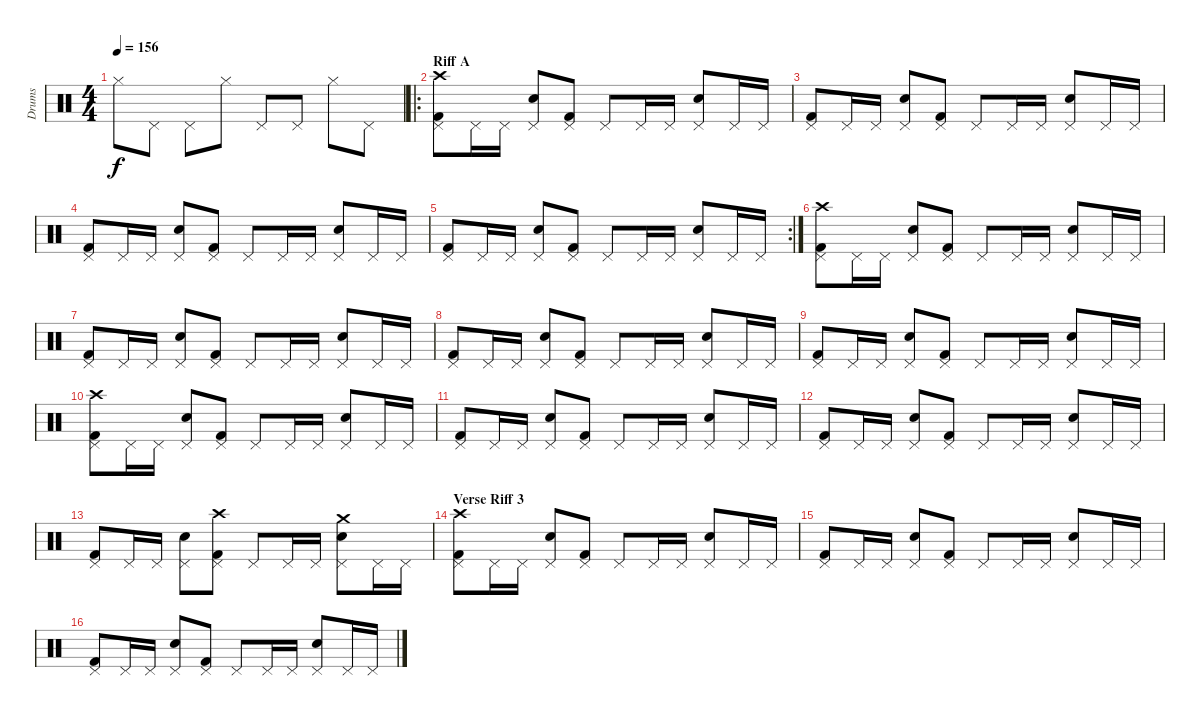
\track ("Drums" "Drums") {instrument percussion}
\staff {score}
\articulation defaults
\ts (4 4)
\tempo 156
\clef neutral
\ks c "Hi-Hat (closed)".8{dy f} "Pedal Hi-Hat (hit)".8 "Pedal Hi-Hat (hit)".8 "Hi-Hat (closed)".8 "Pedal Hi-Hat (hit)".8 "Pedal Hi-Hat (hit)".8 "Hi-Hat (closed)".8 "Pedal Hi-Hat (hit)".8
|
\ro
\section ("" "Riff A")
("Kick (hit) 2" "Pedal Hi-Hat (hit)" "Crash high (hit)").8{volume 13} "Pedal Hi-Hat (hit)".16 "Pedal Hi-Hat (hit)".16 ("Snare (hit) 2" "Pedal Hi-Hat (hit)").8 ("Kick (hit) 2" "Pedal Hi-Hat (hit)").8 "Pedal Hi-Hat (hit)".8 "Pedal Hi-Hat (hit)".16 "Pedal Hi-Hat (hit)".16 ("Snare (hit) 2" "Pedal Hi-Hat (hit)").8 "Pedal Hi-Hat (hit)".16 "Pedal Hi-Hat (hit)".16 |
("Kick (hit) 2" "Pedal Hi-Hat (hit)").8 "Pedal Hi-Hat (hit)".16 "Pedal Hi-Hat (hit)".16 ("Snare (hit) 2" "Pedal Hi-Hat (hit)").8 ("Kick (hit) 2" "Pedal Hi-Hat (hit)").8 "Pedal Hi-Hat (hit)".8 "Pedal Hi-Hat (hit)".16 "Pedal Hi-Hat (hit)".16 ("Snare (hit) 2" "Pedal Hi-Hat (hit)").8 "Pedal Hi-Hat (hit)".16 "Pedal Hi-Hat (hit)".16 |
("Kick (hit) 2" "Pedal Hi-Hat (hit)").8 "Pedal Hi-Hat (hit)".16 "Pedal Hi-Hat (hit)".16 ("Snare (hit) 2" "Pedal Hi-Hat (hit)").8 ("Kick (hit) 2" "Pedal Hi-Hat (hit)").8 "Pedal Hi-Hat (hit)".8 "Pedal Hi-Hat (hit)".16 "Pedal Hi-Hat (hit)".16 ("Snare (hit) 2" "Pedal Hi-Hat (hit)").8 "Pedal Hi-Hat (hit)".16 "Pedal Hi-Hat (hit)".16 |
\rc 2
("Kick (hit) 2" "Pedal Hi-Hat (hit)").8 "Pedal Hi-Hat (hit)".16 "Pedal Hi-Hat (hit)".16 ("Snare (hit) 2" "Pedal Hi-Hat (hit)").8 ("Kick (hit) 2" "Pedal Hi-Hat (hit)").8 "Pedal Hi-Hat (hit)".8 "Pedal Hi-Hat (hit)".16 "Pedal Hi-Hat (hit)".16 ("Snare (hit) 2" "Pedal Hi-Hat (hit)").8 "Pedal Hi-Hat (hit)".16 "Pedal Hi-Hat (hit)".16 |
("Kick (hit) 2" "Pedal Hi-Hat (hit)" "Crash high (hit)").8 "Pedal Hi-Hat (hit)".16 "Pedal Hi-Hat (hit)".16 ("Snare (hit) 2" "Pedal Hi-Hat (hit)").8 ("Kick (hit) 2" "Pedal Hi-Hat (hit)").8 "Pedal Hi-Hat (hit)".8 "Pedal Hi-Hat (hit)".16 "Pedal Hi-Hat (hit)".16 ("Snare (hit) 2" "Pedal Hi-Hat (hit)").8 "Pedal Hi-Hat (hit)".16 "Pedal Hi-Hat (hit)".16 |
("Kick (hit) 2" "Pedal Hi-Hat (hit)").8 "Pedal Hi-Hat (hit)".16 "Pedal Hi-Hat (hit)".16 ("Snare (hit) 2" "Pedal Hi-Hat (hit)").8 ("Kick (hit) 2" "Pedal Hi-Hat (hit)").8 "Pedal Hi-Hat (hit)".8 "Pedal Hi-Hat (hit)".16 "Pedal Hi-Hat (hit)".16 ("Snare (hit) 2" "Pedal Hi-Hat (hit)").8 "Pedal Hi-Hat (hit)".16 "Pedal Hi-Hat (hit)".16 |
("Kick (hit) 2" "Pedal Hi-Hat (hit)").8 "Pedal Hi-Hat (hit)".16 "Pedal Hi-Hat (hit)".16 ("Snare (hit) 2" "Pedal Hi-Hat (hit)").8 ("Kick (hit) 2" "Pedal Hi-Hat (hit)").8 "Pedal Hi-Hat (hit)".8 "Pedal Hi-Hat (hit)".16 "Pedal Hi-Hat (hit)".16 ("Snare (hit) 2" "Pedal Hi-Hat (hit)").8 "Pedal Hi-Hat (hit)".16 "Pedal Hi-Hat (hit)".16 |
("Kick (hit) 2" "Pedal Hi-Hat (hit)").8 "Pedal Hi-Hat (hit)".16 "Pedal Hi-Hat (hit)".16 ("Snare (hit) 2" "Pedal Hi-Hat (hit)").8 ("Kick (hit) 2" "Pedal Hi-Hat (hit)").8 "Pedal Hi-Hat (hit)".8 "Pedal Hi-Hat (hit)".16 "Pedal Hi-Hat (hit)".16 ("Snare (hit) 2" "Pedal Hi-Hat (hit)").8 "Pedal Hi-Hat (hit)".16 "Pedal Hi-Hat (hit)".16 |
("Kick (hit) 2" "Pedal Hi-Hat (hit)" "Crash high (hit)").8 "Pedal Hi-Hat (hit)".16 "Pedal Hi-Hat (hit)".16 ("Snare (hit) 2" "Pedal Hi-Hat (hit)").8 ("Kick (hit) 2" "Pedal Hi-Hat (hit)").8 "Pedal Hi-Hat (hit)".8 "Pedal Hi-Hat (hit)".16 "Pedal Hi-Hat (hit)".16 ("Snare (hit) 2" "Pedal Hi-Hat (hit)").8 "Pedal Hi-Hat (hit)".16 "Pedal Hi-Hat (hit)".16 |
("Kick (hit) 2" "Pedal Hi-Hat (hit)").8 "Pedal Hi-Hat (hit)".16 "Pedal Hi-Hat (hit)".16 ("Snare (hit) 2" "Pedal Hi-Hat (hit)").8 ("Kick (hit) 2" "Pedal Hi-Hat (hit)").8 "Pedal Hi-Hat (hit)".8 "Pedal Hi-Hat (hit)".16 "Pedal Hi-Hat (hit)".16 ("Snare (hit) 2" "Pedal Hi-Hat (hit)").8 "Pedal Hi-Hat (hit)".16 "Pedal Hi-Hat (hit)".16 |
("Kick (hit) 2" "Pedal Hi-Hat (hit)").8 "Pedal Hi-Hat (hit)".16 "Pedal Hi-Hat (hit)".16 ("Snare (hit) 2" "Pedal Hi-Hat (hit)").8 ("Kick (hit) 2" "Pedal Hi-Hat (hit)").8 "Pedal Hi-Hat (hit)".8 "Pedal Hi-Hat (hit)".16 "Pedal Hi-Hat (hit)".16 ("Snare (hit) 2" "Pedal Hi-Hat (hit)").8 "Pedal Hi-Hat (hit)".16 "Pedal Hi-Hat (hit)".16 |
("Kick (hit) 2" "Pedal Hi-Hat (hit)").8 "Pedal Hi-Hat (hit)".16 "Pedal Hi-Hat (hit)".16 ("Snare (hit) 2" "Pedal Hi-Hat (hit)").8 ("Kick (hit) 2" "Pedal Hi-Hat (hit)" "Crash high (hit)").8 "Pedal Hi-Hat (hit)".8 "Pedal Hi-Hat (hit)".16 "Pedal Hi-Hat (hit)".16 ("Snare (hit) 2" "Pedal Hi-Hat (hit)" "Crash medium (hit)").8 "Pedal Hi-Hat (hit)".16 "Pedal Hi-Hat (hit)".16 |
\section ("" "Verse Riff 3")
("Kick (hit) 2" "Pedal Hi-Hat (hit)" "Crash high (hit)").8 "Pedal Hi-Hat (hit)".16 "Pedal Hi-Hat (hit)".16 ("Snare (hit) 2" "Pedal Hi-Hat (hit)").8 ("Kick (hit) 2" "Pedal Hi-Hat (hit)").8 "Pedal Hi-Hat (hit)".8 "Pedal Hi-Hat (hit)".16 "Pedal Hi-Hat (hit)".16 ("Snare (hit) 2" "Pedal Hi-Hat (hit)").8 "Pedal Hi-Hat (hit)".16 "Pedal Hi-Hat (hit)".16 |
("Kick (hit) 2" "Pedal Hi-Hat (hit)").8 "Pedal Hi-Hat (hit)".16 "Pedal Hi-Hat (hit)".16 ("Snare (hit) 2" "Pedal Hi-Hat (hit)").8 ("Kick (hit) 2" "Pedal Hi-Hat (hit)").8 "Pedal Hi-Hat (hit)".8 "Pedal Hi-Hat (hit)".16 "Pedal Hi-Hat (hit)".16 ("Snare (hit) 2" "Pedal Hi-Hat (hit)").8 "Pedal Hi-Hat (hit)".16 "Pedal Hi-Hat (hit)".16 |
("Kick (hit) 2" "Pedal Hi-Hat (hit)").8 "Pedal Hi-Hat (hit)".16 "Pedal Hi-Hat (hit)".16 ("Snare (hit) 2" "Pedal Hi-Hat (hit)").8 ("Kick (hit) 2" "Pedal Hi-Hat (hit)").8 "Pedal Hi-Hat (hit)".8 "Pedal Hi-Hat (hit)".16 "Pedal Hi-Hat (hit)".16 ("Snare (hit) 2" "Pedal Hi-Hat (hit)").8 "Pedal Hi-Hat (hit)".16 "Pedal Hi-Hat (hit)".16
